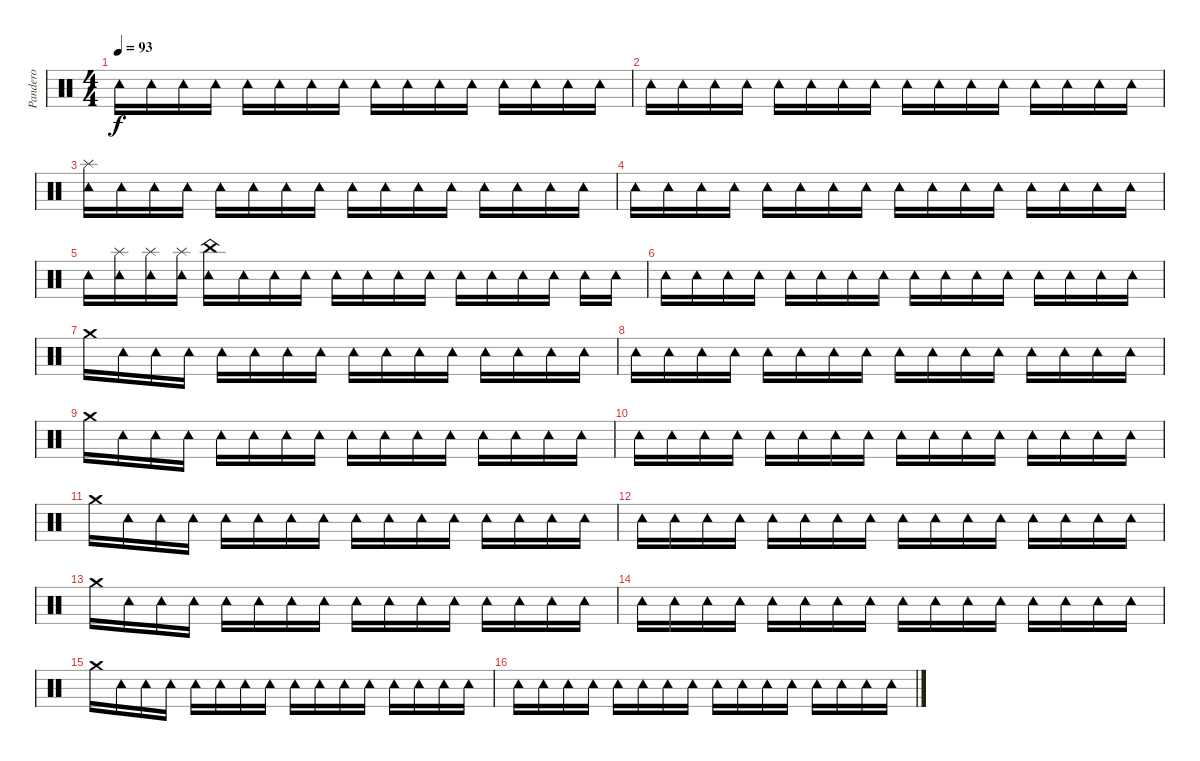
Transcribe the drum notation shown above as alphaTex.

\track ("Pandero" "Pandero") {instrument percussion bank 1}
\staff {score}
\articulation defaults
\ts (4 4)
\tempo 93
\clef neutral
\ks c "Tambourine (hit)".16{dy f} "Tambourine (hit)".16 "Tambourine (hit)".16 "Tambourine (hit)".16 "Tambourine (hit)".16 "Tambourine (hit)".16 "Tambourine (hit)".16 "Tambourine (hit)".16 "Tambourine (hit)".16 "Tambourine (hit)".16 "Tambourine (hit)".16 "Tambourine (hit)".16 "Tambourine (hit)".16 "Tambourine (hit)".16 "Tambourine (hit)".16 "Tambourine (hit)".16
|
"Tambourine (hit)".16 "Tambourine (hit)".16 "Tambourine (hit)".16 "Tambourine (hit)".16 "Tambourine (hit)".16 "Tambourine (hit)".16 "Tambourine (hit)".16 "Tambourine (hit)".16 "Tambourine (hit)".16 "Tambourine (hit)".16 "Tambourine (hit)".16 "Tambourine (hit)".16 "Tambourine (hit)".16 "Tambourine (hit)".16 "Tambourine (hit)".16 "Tambourine (hit)".16 |
("Tambourine (hit)" "Splash (hit)").16 "Tambourine (hit)".16 "Tambourine (hit)".16 "Tambourine (hit)".16 "Tambourine (hit)".16 "Tambourine (hit)".16 "Tambourine (hit)".16 "Tambourine (hit)".16 "Tambourine (hit)".16 "Tambourine (hit)".16 "Tambourine (hit)".16 "Tambourine (hit)".16 "Tambourine (hit)".16 "Tambourine (hit)".16 "Tambourine (hit)".16 "Tambourine (hit)".16 |
"Tambourine (hit)".16 "Tambourine (hit)".16 "Tambourine (hit)".16 "Tambourine (hit)".16 "Tambourine (hit)".16 "Tambourine (hit)".16 "Tambourine (hit)".16 "Tambourine (hit)".16 "Tambourine (hit)".16 "Tambourine (hit)".16 "Tambourine (hit)".16 "Tambourine (hit)".16 "Tambourine (hit)".16 "Tambourine (hit)".16 "Tambourine (hit)".16 "Tambourine (hit)".16 |
"Tambourine (hit)".16 ("Tambourine (hit)" "Splash (hit)").16 ("Tambourine (hit)" "Splash (hit)").16 ("Tambourine (hit)" "Splash (hit)").16 ("Tambourine (hit)" "China (hit)").16 "Tambourine (hit)".16 "Tambourine (hit)".16 "Tambourine (hit)".16 "Tambourine (hit)".16 "Tambourine (hit)".16 "Tambourine (hit)".16 "Tambourine (hit)".16 "Tambourine (hit)".16 "Tambourine (hit)".16 "Tambourine (hit)".16 "Tambourine (hit)".16 "Tambourine (hit)".16 "Tambourine (hit)".16 |
"Tambourine (hit)".16 "Tambourine (hit)".16 "Tambourine (hit)".16 "Tambourine (hit)".16 "Tambourine (hit)".16 "Tambourine (hit)".16 "Tambourine (hit)".16 "Tambourine (hit)".16 "Tambourine (hit)".16 "Tambourine (hit)".16 "Tambourine (hit)".16 "Tambourine (hit)".16 "Tambourine (hit)".16 "Tambourine (hit)".16 "Tambourine (hit)".16 "Tambourine (hit)".16 |
"Crash medium (hit)".16 "Tambourine (hit)".16 "Tambourine (hit)".16 "Tambourine (hit)".16 "Tambourine (hit)".16 "Tambourine (hit)".16 "Tambourine (hit)".16 "Tambourine (hit)".16 "Tambourine (hit)".16 "Tambourine (hit)".16 "Tambourine (hit)".16 "Tambourine (hit)".16 "Tambourine (hit)".16 "Tambourine (hit)".16 "Tambourine (hit)".16 "Tambourine (hit)".16 |
"Tambourine (hit)".16 "Tambourine (hit)".16 "Tambourine (hit)".16 "Tambourine (hit)".16 "Tambourine (hit)".16 "Tambourine (hit)".16 "Tambourine (hit)".16 "Tambourine (hit)".16 "Tambourine (hit)".16 "Tambourine (hit)".16 "Tambourine (hit)".16 "Tambourine (hit)".16 "Tambourine (hit)".16 "Tambourine (hit)".16 "Tambourine (hit)".16 "Tambourine (hit)".16 |
"Crash medium (hit)".16 "Tambourine (hit)".16 "Tambourine (hit)".16 "Tambourine (hit)".16 "Tambourine (hit)".16 "Tambourine (hit)".16 "Tambourine (hit)".16 "Tambourine (hit)".16 "Tambourine (hit)".16 "Tambourine (hit)".16 "Tambourine (hit)".16 "Tambourine (hit)".16 "Tambourine (hit)".16 "Tambourine (hit)".16 "Tambourine (hit)".16 "Tambourine (hit)".16 |
"Tambourine (hit)".16 "Tambourine (hit)".16 "Tambourine (hit)".16 "Tambourine (hit)".16 "Tambourine (hit)".16 "Tambourine (hit)".16 "Tambourine (hit)".16 "Tambourine (hit)".16 "Tambourine (hit)".16 "Tambourine (hit)".16 "Tambourine (hit)".16 "Tambourine (hit)".16 "Tambourine (hit)".16 "Tambourine (hit)".16 "Tambourine (hit)".16 "Tambourine (hit)".16 |
"Crash medium (hit)".16 "Tambourine (hit)".16 "Tambourine (hit)".16 "Tambourine (hit)".16 "Tambourine (hit)".16 "Tambourine (hit)".16 "Tambourine (hit)".16 "Tambourine (hit)".16 "Tambourine (hit)".16 "Tambourine (hit)".16 "Tambourine (hit)".16 "Tambourine (hit)".16 "Tambourine (hit)".16 "Tambourine (hit)".16 "Tambourine (hit)".16 "Tambourine (hit)".16 |
"Tambourine (hit)".16 "Tambourine (hit)".16 "Tambourine (hit)".16 "Tambourine (hit)".16 "Tambourine (hit)".16 "Tambourine (hit)".16 "Tambourine (hit)".16 "Tambourine (hit)".16 "Tambourine (hit)".16 "Tambourine (hit)".16 "Tambourine (hit)".16 "Tambourine (hit)".16 "Tambourine (hit)".16 "Tambourine (hit)".16 "Tambourine (hit)".16 "Tambourine (hit)".16 |
"Crash medium (hit)".16 "Tambourine (hit)".16 "Tambourine (hit)".16 "Tambourine (hit)".16 "Tambourine (hit)".16 "Tambourine (hit)".16 "Tambourine (hit)".16 "Tambourine (hit)".16 "Tambourine (hit)".16 "Tambourine (hit)".16 "Tambourine (hit)".16 "Tambourine (hit)".16 "Tambourine (hit)".16 "Tambourine (hit)".16 "Tambourine (hit)".16 "Tambourine (hit)".16 |
"Tambourine (hit)".16 "Tambourine (hit)".16 "Tambourine (hit)".16 "Tambourine (hit)".16 "Tambourine (hit)".16 "Tambourine (hit)".16 "Tambourine (hit)".16 "Tambourine (hit)".16 "Tambourine (hit)".16 "Tambourine (hit)".16 "Tambourine (hit)".16 "Tambourine (hit)".16 "Tambourine (hit)".16 "Tambourine (hit)".16 "Tambourine (hit)".16 "Tambourine (hit)".16 |
"Crash medium (hit)".16 "Tambourine (hit)".16 "Tambourine (hit)".16 "Tambourine (hit)".16 "Tambourine (hit)".16 "Tambourine (hit)".16 "Tambourine (hit)".16 "Tambourine (hit)".16 "Tambourine (hit)".16 "Tambourine (hit)".16 "Tambourine (hit)".16 "Tambourine (hit)".16 "Tambourine (hit)".16 "Tambourine (hit)".16 "Tambourine (hit)".16 "Tambourine (hit)".16 |
"Tambourine (hit)".16 "Tambourine (hit)".16 "Tambourine (hit)".16 "Tambourine (hit)".16 "Tambourine (hit)".16 "Tambourine (hit)".16 "Tambourine (hit)".16 "Tambourine (hit)".16 "Tambourine (hit)".16 "Tambourine (hit)".16 "Tambourine (hit)".16 "Tambourine (hit)".16 "Tambourine (hit)".16 "Tambourine (hit)".16 "Tambourine (hit)".16 "Tambourine (hit)".16
